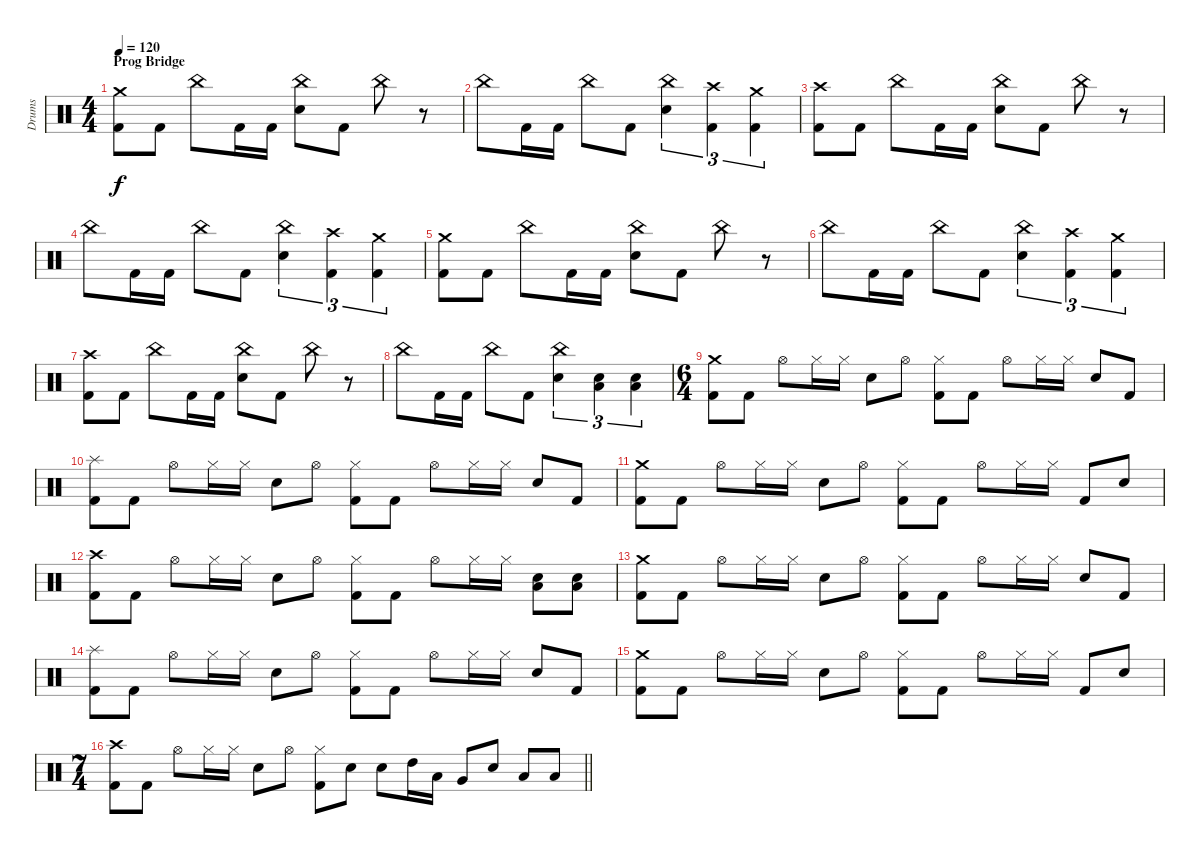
\track ("Drums" "Drums") {instrument percussion}
\staff {score}
\articulation defaults
\ts (4 4)
\section ("" "Prog Bridge")
\tempo 120
\clef neutral
\ks c
("Crash medium (hit)" "Kick (hit) 2").8{dy f} "Kick (hit) 2".8 "China (hit)".8 "Kick (hit) 2".16 "Kick (hit) 2".16 ("China (hit)" "Snare (hit) 2").8 "Kick (hit) 2".8 "China (hit)".8 r.8 |
"China (hit)".8 "Kick (hit) 2".16 "Kick (hit) 2".16 "China (hit)".8 "Kick (hit) 2".8 ("China (hit)" "Snare (hit) 2").4{tu (3 2)} ("Crash high (hit)" "Kick (hit) 2").4{tu (3 2)} ("Crash medium (hit)" "Kick (hit) 2").4{tu (3 2)} |
("Crash high (hit)" "Kick (hit) 2").8 "Kick (hit) 2".8 "China (hit)".8 "Kick (hit) 2".16 "Kick (hit) 2".16 ("China (hit)" "Snare (hit) 2").8 "Kick (hit) 2".8 "China (hit)".8 r.8 |
"China (hit)".8 "Kick (hit) 2".16 "Kick (hit) 2".16 "China (hit)".8 "Kick (hit) 2".8 ("China (hit)" "Snare (hit) 2").4{tu (3 2)} ("Crash high (hit)" "Kick (hit) 2").4{tu (3 2)} ("Crash medium (hit)" "Kick (hit) 2").4{tu (3 2)} |
("Crash medium (hit)" "Kick (hit) 2").8 "Kick (hit) 2".8 "China (hit)".8 "Kick (hit) 2".16 "Kick (hit) 2".16 ("China (hit)" "Snare (hit) 2").8 "Kick (hit) 2".8 "China (hit)".8 r.8 |
"China (hit)".8 "Kick (hit) 2".16 "Kick (hit) 2".16 "China (hit)".8 "Kick (hit) 2".8 ("China (hit)" "Snare (hit) 2").4{tu (3 2)} ("Crash high (hit)" "Kick (hit) 2").4{tu (3 2)} ("Crash medium (hit)" "Kick (hit) 2").4{tu (3 2)} |
("Crash high (hit)" "Kick (hit) 2").8 "Kick (hit) 2".8 "China (hit)".8 "Kick (hit) 2".16 "Kick (hit) 2".16 ("China (hit)" "Snare (hit) 2").8 "Kick (hit) 2".8 "China (hit)".8 r.8 |
"China (hit)".8 "Kick (hit) 2".16 "Kick (hit) 2".16 "China (hit)".8 "Kick (hit) 2".8 ("China (hit)" "Snare (hit) 2").4{tu (3 2)} ("Snare (hit) 2" "Low Floor Tom (hit)").4{tu (3 2)} ("Snare (hit) 2" "Low Floor Tom (hit)").4{tu (3 2)} |
\ts (6 4)
("Crash medium (hit)" "Kick (hit) 2").8 "Kick (hit) 2".8 "Hi-Hat (open)".8 "Hi-Hat (closed)".16 "Hi-Hat (closed)".16 "Snare (hit) 2".8 "Hi-Hat (open)".8 ("Hi-Hat (closed)" "Kick (hit) 2").8 "Kick (hit) 2".8 "Hi-Hat (open)".8 "Hi-Hat (closed)".16 "Hi-Hat (closed)".16 "Snare (hit) 2".8 "Kick (hit) 2".8 |
("Splash (hit)" "Kick (hit) 2").8 "Kick (hit) 2".8 "Hi-Hat (open)".8 "Hi-Hat (closed)".16 "Hi-Hat (closed)".16 "Snare (hit) 2".8 "Hi-Hat (open)".8 ("Hi-Hat (closed)" "Kick (hit) 2").8 "Kick (hit) 2".8 "Hi-Hat (open)".8 "Hi-Hat (closed)".16 "Hi-Hat (closed)".16 "Snare (hit) 2".8 "Kick (hit) 2".8 |
("Crash medium (hit)" "Kick (hit) 2").8 "Kick (hit) 2".8 "Hi-Hat (open)".8 "Hi-Hat (closed)".16 "Hi-Hat (closed)".16 "Snare (hit) 2".8 "Hi-Hat (open)".8 ("Hi-Hat (closed)" "Kick (hit) 2").8 "Kick (hit) 2".8 "Hi-Hat (open)".8 "Hi-Hat (closed)".16 "Hi-Hat (closed)".16 "Kick (hit) 2".8 "Snare (hit) 2".8 |
("Crash high (hit)" "Kick (hit) 2").8 "Kick (hit) 2".8 "Hi-Hat (open)".8 "Hi-Hat (closed)".16 "Hi-Hat (closed)".16 "Snare (hit) 2".8 "Hi-Hat (open)".8 ("Hi-Hat (closed)" "Kick (hit) 2").8 "Kick (hit) 2".8 "Hi-Hat (open)".8 "Hi-Hat (closed)".16 "Hi-Hat (closed)".16 ("Snare (hit) 2" "Low Floor Tom (hit)").8 ("Snare (hit) 2" "Low Floor Tom (hit)").8 |
("Crash medium (hit)" "Kick (hit) 2").8 "Kick (hit) 2".8 "Hi-Hat (open)".8 "Hi-Hat (closed)".16 "Hi-Hat (closed)".16 "Snare (hit) 2".8 "Hi-Hat (open)".8 ("Hi-Hat (closed)" "Kick (hit) 2").8 "Kick (hit) 2".8 "Hi-Hat (open)".8 "Hi-Hat (closed)".16 "Hi-Hat (closed)".16 "Snare (hit) 2".8 "Kick (hit) 2".8 |
("Splash (hit)" "Kick (hit) 2").8 "Kick (hit) 2".8 "Hi-Hat (open)".8 "Hi-Hat (closed)".16 "Hi-Hat (closed)".16 "Snare (hit) 2".8 "Hi-Hat (open)".8 ("Hi-Hat (closed)" "Kick (hit) 2").8 "Kick (hit) 2".8 "Hi-Hat (open)".8 "Hi-Hat (closed)".16 "Hi-Hat (closed)".16 "Snare (hit) 2".8 "Kick (hit) 2".8 |
("Crash medium (hit)" "Kick (hit) 2").8 "Kick (hit) 2".8 "Hi-Hat (open)".8 "Hi-Hat (closed)".16 "Hi-Hat (closed)".16 "Snare (hit) 2".8 "Hi-Hat (open)".8 ("Hi-Hat (closed)" "Kick (hit) 2").8 "Kick (hit) 2".8 "Hi-Hat (open)".8 "Hi-Hat (closed)".16 "Hi-Hat (closed)".16 "Kick (hit) 2".8 "Snare (hit) 2".8 |
\ts (7 4)
\barLineRight lightlight
("Crash high (hit)" "Kick (hit) 2").8 "Kick (hit) 2".8 "Hi-Hat (open)".8 "Hi-Hat (closed)".16 "Hi-Hat (closed)".16 "Snare (hit) 2".8 "Hi-Hat (open)".8 ("Hi-Hat (closed)" "Kick (hit) 2").8 "Snare (hit) 2".8 "Snare (hit) 2".8 "High Tom (hit)".16 "Low Tom (hit)".16 "Very Low Tom (hit)".8 "Snare (hit) 2".8 "Low Floor Tom (hit)".8 "Low Floor Tom (hit)".8
